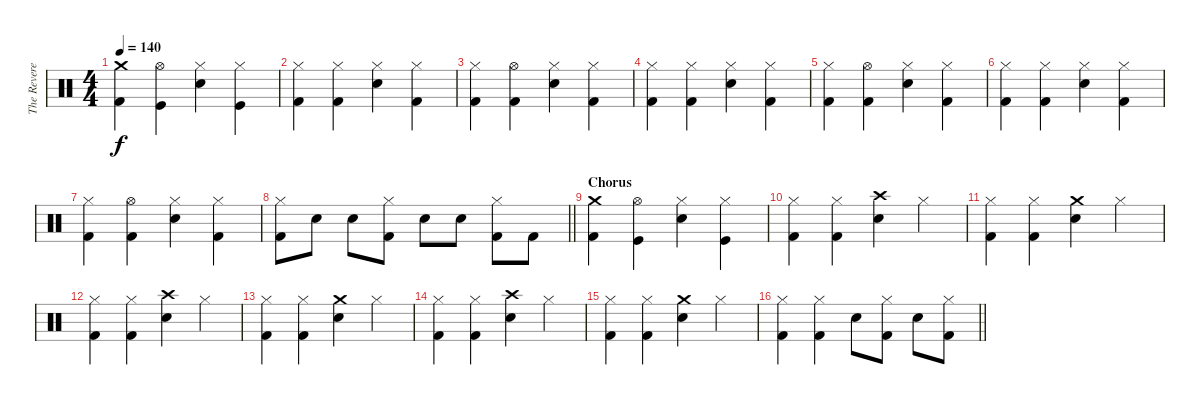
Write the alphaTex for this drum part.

\track ("The Reverend" "The Revere") {instrument percussion}
\staff {score}
\articulation defaults
\ts (4 4)
\tempo 140
\clef neutral
\ks c
("Crash medium (hit)" "Kick (hit) 2").4{dy f} ("Hi-Hat (open)" "Kick (hit)").4 ("Hi-Hat (closed)" "Snare (hit) 2").4 ("Hi-Hat (closed)" "Kick (hit)").4 |
("Hi-Hat (closed)" "Kick (hit) 2").4 ("Hi-Hat (closed)" "Kick (hit) 2").4 ("Hi-Hat (closed)" "Snare (hit) 2").4 ("Hi-Hat (closed)" "Kick (hit) 2").4 |
("Hi-Hat (closed)" "Kick (hit) 2").4 ("Hi-Hat (open)" "Kick (hit) 2").4 ("Hi-Hat (closed)" "Snare (hit) 2").4 ("Hi-Hat (closed)" "Kick (hit) 2").4 |
("Hi-Hat (closed)" "Kick (hit) 2").4 ("Hi-Hat (closed)" "Kick (hit) 2").4 ("Hi-Hat (closed)" "Snare (hit) 2").4 ("Hi-Hat (closed)" "Kick (hit) 2").4 |
("Hi-Hat (closed)" "Kick (hit) 2").4 ("Hi-Hat (open)" "Kick (hit) 2").4 ("Hi-Hat (closed)" "Snare (hit) 2").4 ("Hi-Hat (closed)" "Kick (hit) 2").4 |
("Hi-Hat (closed)" "Kick (hit) 2").4 ("Hi-Hat (closed)" "Kick (hit) 2").4 ("Hi-Hat (closed)" "Snare (hit) 2").4 ("Hi-Hat (closed)" "Kick (hit) 2").4 |
("Hi-Hat (closed)" "Kick (hit) 2").4 ("Hi-Hat (open)" "Kick (hit) 2").4 ("Hi-Hat (closed)" "Snare (hit) 2").4 ("Hi-Hat (closed)" "Kick (hit) 2").4 |
\barLineRight lightlight
("Hi-Hat (closed)" "Kick (hit) 2").8 "Snare (hit) 2".8 "Snare (hit) 2".8 ("Hi-Hat (closed)" "Kick (hit) 2").8 "Snare (hit) 2".8 "Snare (hit) 2".8 ("Hi-Hat (closed)" "Kick (hit) 2").8 "Kick (hit) 2".8 |
\section ("" "Chorus")
("Crash medium (hit)" "Kick (hit) 2").4 ("Hi-Hat (open)" "Kick (hit)").4 ("Hi-Hat (closed)" "Snare (hit) 2").4 ("Hi-Hat (closed)" "Kick (hit)").4 |
("Hi-Hat (closed)" "Kick (hit) 2").4 ("Hi-Hat (closed)" "Kick (hit) 2").4 ("Crash high (hit)" "Snare (hit) 2").4 "Hi-Hat (closed)".4 |
("Hi-Hat (closed)" "Kick (hit) 2").4 ("Hi-Hat (closed)" "Kick (hit) 2").4 ("Crash medium (hit)" "Snare (hit) 2").4 "Hi-Hat (closed)".4 |
("Hi-Hat (closed)" "Kick (hit) 2").4 ("Hi-Hat (closed)" "Kick (hit) 2").4 ("Crash high (hit)" "Snare (hit) 2").4 "Hi-Hat (closed)".4 |
("Hi-Hat (closed)" "Kick (hit) 2").4 ("Hi-Hat (closed)" "Kick (hit) 2").4 ("Crash medium (hit)" "Snare (hit) 2").4 "Hi-Hat (closed)".4 |
("Hi-Hat (closed)" "Kick (hit) 2").4 ("Hi-Hat (closed)" "Kick (hit) 2").4 ("Crash high (hit)" "Snare (hit) 2").4 "Hi-Hat (closed)".4 |
("Hi-Hat (closed)" "Kick (hit) 2").4 ("Hi-Hat (closed)" "Kick (hit) 2").4 ("Crash medium (hit)" "Snare (hit) 2").4 "Hi-Hat (closed)".4 |
\barLineRight lightlight
("Hi-Hat (closed)" "Kick (hit) 2").4 ("Hi-Hat (closed)" "Kick (hit) 2").4 "Snare (hit) 2".8 ("Hi-Hat (closed)" "Kick (hit) 2").8 "Snare (hit) 2".8 ("Hi-Hat (closed)" "Kick (hit) 2").8
